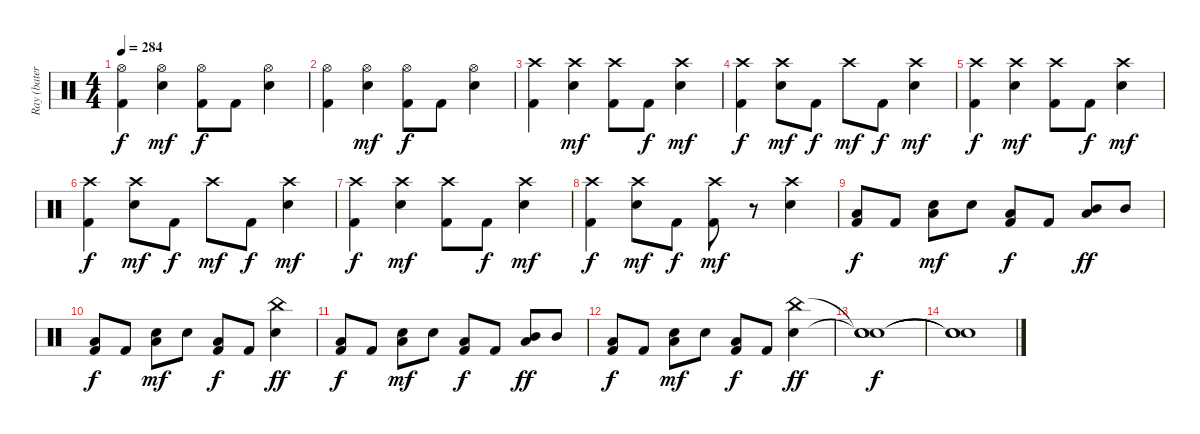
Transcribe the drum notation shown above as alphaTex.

\track ("Ray (batería)" "Ray (bater") {instrument percussion}
\staff {score}
\articulation defaults
\ts (4 4)
\tempo 284
\clef neutral
\ks c
("Hi-Hat (open)" "Kick (hit) 2").4{dy f} ("Hi-Hat (open)" "Snare (hit) 2").4{dy mf} ("Hi-Hat (open)" "Kick (hit) 2").8{dy f} "Kick (hit) 2".8 ("Hi-Hat (open)" "Snare (hit) 2").4 |
("Hi-Hat (open)" "Kick (hit) 2").4 ("Hi-Hat (open)" "Snare (hit) 2").4{dy mf} ("Hi-Hat (open)" "Kick (hit) 2").8{dy f} "Kick (hit) 2".8 ("Hi-Hat (open)" "Snare (hit) 2").4 |
("Crash high (hit)" "Kick (hit) 2").4 ("Crash high (hit)" "Snare (hit) 2").4{dy mf} ("Crash high (hit)" "Kick (hit) 2").8 "Kick (hit) 2".8{dy f} ("Crash high (hit)" "Snare (hit) 2").4{dy mf} |
("Crash high (hit)" "Kick (hit) 2").4{dy f} ("Crash high (hit)" "Snare (hit) 2").8{dy mf} "Kick (hit) 2".8{dy f} "Crash high (hit)".8{dy mf} "Kick (hit) 2".8{dy f} ("Crash high (hit)" "Snare (hit) 2").4{dy mf} |
("Crash high (hit)" "Kick (hit) 2").4{dy f} ("Crash high (hit)" "Snare (hit) 2").4{dy mf} ("Crash high (hit)" "Kick (hit) 2").8 "Kick (hit) 2".8{dy f} ("Crash high (hit)" "Snare (hit) 2").4{dy mf} |
("Crash high (hit)" "Kick (hit) 2").4{dy f} ("Crash high (hit)" "Snare (hit) 2").8{dy mf} "Kick (hit) 2".8{dy f} "Crash high (hit)".8{dy mf} "Kick (hit) 2".8{dy f} ("Crash high (hit)" "Snare (hit) 2").4{dy mf} |
("Crash high (hit)" "Kick (hit) 2").4{dy f} ("Crash high (hit)" "Snare (hit) 2").4{dy mf} ("Crash high (hit)" "Kick (hit) 2").8 "Kick (hit) 2".8{dy f} ("Crash high (hit)" "Snare (hit) 2").4{dy mf} |
("Crash high (hit)" "Kick (hit) 2").4{dy f} ("Crash high (hit)" "Snare (hit) 2").8{dy mf} "Kick (hit) 2".8{dy f} ("Crash high (hit)" "Kick (hit) 2").8{dy mf} r.8 ("Crash high (hit)" "Snare (hit) 2").4 |
("Low Tom (hit)" "Kick (hit) 2").8{dy f} "Kick (hit) 2".8 ("Snare (hit) 2" "Low Tom (hit)").8{dy mf} "Snare (hit) 2".8 ("Low Tom (hit)" "Kick (hit) 2").8{dy f} "Kick (hit) 2".8 ("Mid Tom (hit)" "Low Tom (hit)").8{dy ff} "Mid Tom (hit)".8 |
("Low Tom (hit)" "Kick (hit) 2").8{dy f} "Kick (hit) 2".8 ("Snare (hit) 2" "Low Tom (hit)").8{dy mf} "Snare (hit) 2".8 ("Low Tom (hit)" "Kick (hit) 2").8{dy f} "Kick (hit) 2".8 ("China (hit)" "Snare (hit) 2").4{dy ff} |
("Low Tom (hit)" "Kick (hit) 2").8{dy f} "Kick (hit) 2".8 ("Snare (hit) 2" "Low Tom (hit)").8{dy mf} "Snare (hit) 2".8 ("Low Tom (hit)" "Kick (hit) 2").8{dy f} "Kick (hit) 2".8 ("Mid Tom (hit)" "Low Tom (hit)").8{dy ff} "Mid Tom (hit)".8 |
("Low Tom (hit)" "Kick (hit) 2").8{dy f} "Kick (hit) 2".8 ("Snare (hit) 2" "Low Tom (hit)").8{dy mf} "Snare (hit) 2".8 ("Low Tom (hit)" "Kick (hit) 2").8{dy f} "Kick (hit) 2".8 ("China (hit)" "Snare (hit) 2").4{dy ff} |
("Snare (hit)"{t} "Snare (hit)"{t} "Snare (hit)").1{dy f} |
("Snare (hit)"{t} "Snare (hit)"{t} "Snare (hit)"{t}).1
